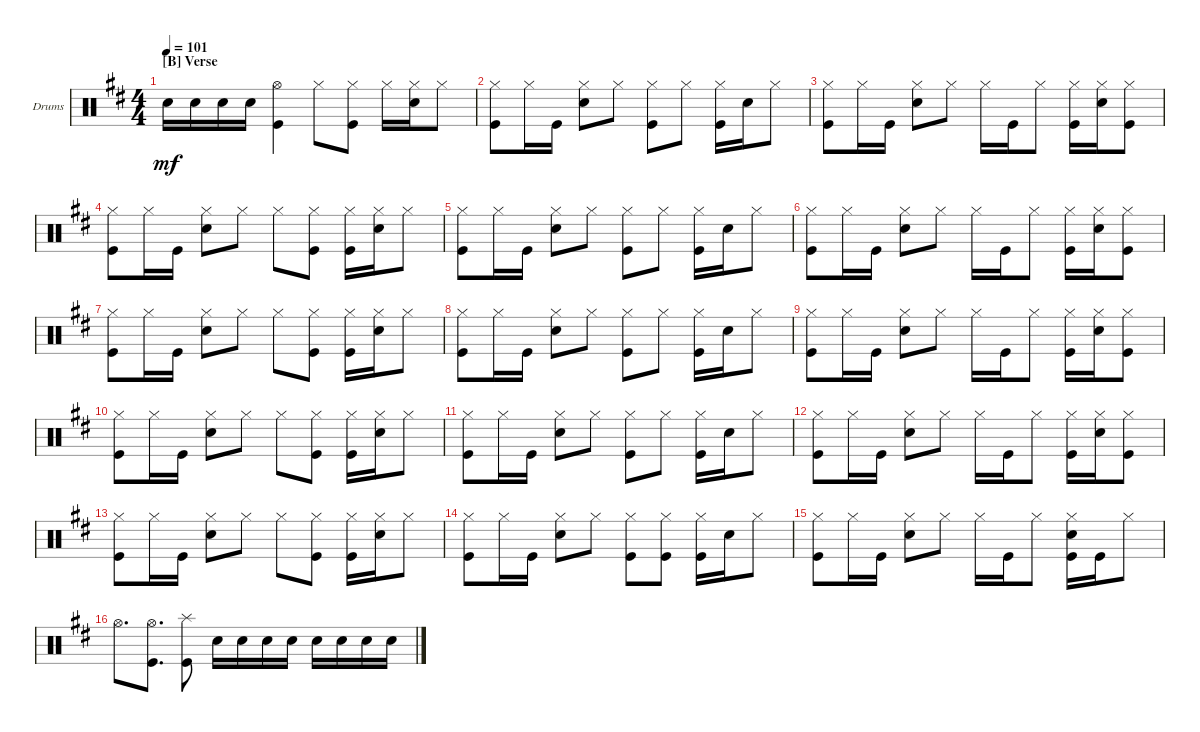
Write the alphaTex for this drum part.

\bracketExtendMode groupsimilarinstruments
\firstSystemTrackNameOrientation horizontal
\otherSystemsTrackNameOrientation horizontal
\track ("Drumkit" "Drums") {instrument percussion}
\staff {score}
\articulation defaults
\ts (4 4)
\section ("B" "Verse")
\tempo 101
\clef neutral
\scale
0.333333
\ks d "Snare (hit) 2".16{dy mf} "Snare (hit) 2".16 "Snare (hit) 2".16 "Snare (hit) 2".16
("Kick (hit)" "Hi-Hat (open)").4 "Hi-Hat (closed)".8 ("Kick (hit)" "Hi-Hat (closed)").8 "Hi-Hat (closed)".16 ("Snare (hit) 2" "Hi-Hat (closed)").16 "Hi-Hat (closed)".8 |
\scale
0.333333 ("Kick (hit)" "Hi-Hat (closed)").8 "Hi-Hat (closed)".16 "Kick (hit)".16 ("Snare (hit) 2" "Hi-Hat (closed)").8 "Hi-Hat (closed)".8 ("Kick (hit)" "Hi-Hat (closed)").8 "Hi-Hat (closed)".8 ("Kick (hit)" "Hi-Hat (closed)").16 "Snare (hit) 2".16 "Hi-Hat (closed)".8 |
\scale
0.333333 ("Kick (hit)" "Hi-Hat (closed)").8 "Hi-Hat (closed)".16 "Kick (hit)".16 ("Snare (hit) 2" "Hi-Hat (closed)").8 "Hi-Hat (closed)".8 "Hi-Hat (closed)".16 "Kick (hit)".16 "Hi-Hat (closed)".8 ("Kick (hit)" "Hi-Hat (closed)").16 ("Snare (hit) 2" "Hi-Hat (closed)").16 ("Kick (hit)" "Hi-Hat (closed)").8 |
\scale
0.333333 ("Kick (hit)" "Hi-Hat (closed)").8 "Hi-Hat (closed)".16 "Kick (hit)".16 ("Snare (hit) 2" "Hi-Hat (closed)").8 "Hi-Hat (closed)".8 "Hi-Hat (closed)".8 ("Kick (hit)" "Hi-Hat (closed)").8 ("Kick (hit)" "Hi-Hat (closed)").16 ("Snare (hit) 2" "Hi-Hat (closed)").16 "Hi-Hat (closed)".8 |
\scale
0.333333 ("Kick (hit)" "Hi-Hat (closed)").8 "Hi-Hat (closed)".16 "Kick (hit)".16 ("Snare (hit) 2" "Hi-Hat (closed)").8 "Hi-Hat (closed)".8 ("Kick (hit)" "Hi-Hat (closed)").8 "Hi-Hat (closed)".8 ("Kick (hit)" "Hi-Hat (closed)").16 "Snare (hit) 2".16 "Hi-Hat (closed)".8 |
\scale
0.333333 ("Kick (hit)" "Hi-Hat (closed)").8 "Hi-Hat (closed)".16 "Kick (hit)".16 ("Snare (hit) 2" "Hi-Hat (closed)").8 "Hi-Hat (closed)".8 "Hi-Hat (closed)".16 "Kick (hit)".16 "Hi-Hat (closed)".8 ("Kick (hit)" "Hi-Hat (closed)").16 ("Snare (hit) 2" "Hi-Hat (closed)").16 ("Kick (hit)" "Hi-Hat (closed)").8 |
\scale
0.333333 ("Kick (hit)" "Hi-Hat (closed)").8 "Hi-Hat (closed)".16 "Kick (hit)".16 ("Snare (hit) 2" "Hi-Hat (closed)").8 "Hi-Hat (closed)".8 "Hi-Hat (closed)".8 ("Kick (hit)" "Hi-Hat (closed)").8 ("Kick (hit)" "Hi-Hat (closed)").16 ("Snare (hit) 2" "Hi-Hat (closed)").16 "Hi-Hat (closed)".8 |
\scale
0.333333 ("Kick (hit)" "Hi-Hat (closed)").8 "Hi-Hat (closed)".16 "Kick (hit)".16 ("Snare (hit) 2" "Hi-Hat (closed)").8 "Hi-Hat (closed)".8 ("Kick (hit)" "Hi-Hat (closed)").8 "Hi-Hat (closed)".8 ("Kick (hit)" "Hi-Hat (closed)").16 "Snare (hit) 2".16 "Hi-Hat (closed)".8 |
\scale
0.333333 ("Kick (hit)" "Hi-Hat (closed)").8 "Hi-Hat (closed)".16 "Kick (hit)".16 ("Snare (hit) 2" "Hi-Hat (closed)").8 "Hi-Hat (closed)".8 "Hi-Hat (closed)".16 "Kick (hit)".16 "Hi-Hat (closed)".8 ("Kick (hit)" "Hi-Hat (closed)").16 ("Snare (hit) 2" "Hi-Hat (closed)").16 ("Kick (hit)" "Hi-Hat (closed)").8 |
\scale
0.333333 ("Kick (hit)" "Hi-Hat (closed)").8 "Hi-Hat (closed)".16 "Kick (hit)".16 ("Snare (hit) 2" "Hi-Hat (closed)").8 "Hi-Hat (closed)".8 "Hi-Hat (closed)".8 ("Kick (hit)" "Hi-Hat (closed)").8 ("Kick (hit)" "Hi-Hat (closed)").16 ("Snare (hit) 2" "Hi-Hat (closed)").16 "Hi-Hat (closed)".8 |
\scale
0.333333 ("Kick (hit)" "Hi-Hat (closed)").8 "Hi-Hat (closed)".16 "Kick (hit)".16 ("Snare (hit) 2" "Hi-Hat (closed)").8 "Hi-Hat (closed)".8 ("Kick (hit)" "Hi-Hat (closed)").8 "Hi-Hat (closed)".8 ("Kick (hit)" "Hi-Hat (closed)").16 "Snare (hit) 2".16 "Hi-Hat (closed)".8 |
\scale
0.333333 ("Kick (hit)" "Hi-Hat (closed)").8 "Hi-Hat (closed)".16 "Kick (hit)".16 ("Snare (hit) 2" "Hi-Hat (closed)").8 "Hi-Hat (closed)".8 "Hi-Hat (closed)".16 "Kick (hit)".16 "Hi-Hat (closed)".8 ("Kick (hit)" "Hi-Hat (closed)").16 ("Snare (hit) 2" "Hi-Hat (closed)").16 ("Kick (hit)" "Hi-Hat (closed)").8 |
\scale
0.333333 ("Kick (hit)" "Hi-Hat (closed)").8 "Hi-Hat (closed)".16 "Kick (hit)".16 ("Snare (hit) 2" "Hi-Hat (closed)").8 "Hi-Hat (closed)".8 "Hi-Hat (closed)".8 ("Kick (hit)" "Hi-Hat (closed)").8 ("Kick (hit)" "Hi-Hat (closed)").16 ("Snare (hit) 2" "Hi-Hat (closed)").16 "Hi-Hat (closed)".8 |
\scale
0.333333 ("Kick (hit)" "Hi-Hat (closed)").8 "Hi-Hat (closed)".16 "Kick (hit)".16 ("Snare (hit) 2" "Hi-Hat (closed)").8 "Hi-Hat (closed)".8 ("Kick (hit)" "Hi-Hat (closed)").8 ("Kick (hit)" "Hi-Hat (closed)").8 ("Kick (hit)" "Hi-Hat (closed)").16 "Snare (hit) 2".16 "Hi-Hat (closed)".8 |
\scale
0.333333 ("Kick (hit)" "Hi-Hat (closed)").8 "Hi-Hat (closed)".16 "Kick (hit)".16 ("Snare (hit) 2" "Hi-Hat (closed)").8 "Hi-Hat (closed)".8 "Hi-Hat (closed)".16 "Kick (hit)".16 "Hi-Hat (closed)".8 ("Hi-Hat (closed)" "Snare (hit) 2" "Kick (hit)").16 "Kick (hit)".16 "Hi-Hat (closed)".8 |
\scale
0.333333 "Hi-Hat (open)".8{d} ("Kick (hit)" "Hi-Hat (open)").8{d} ("Splash (hit)" "Kick (hit)").8 "Snare (hit) 2".16 "Snare (hit) 2".16 "Snare (hit) 2".16 "Snare (hit) 2".16 "Snare (hit) 2".16 "Snare (hit) 2".16 "Snare (hit) 2".16 "Snare (hit) 2".16
